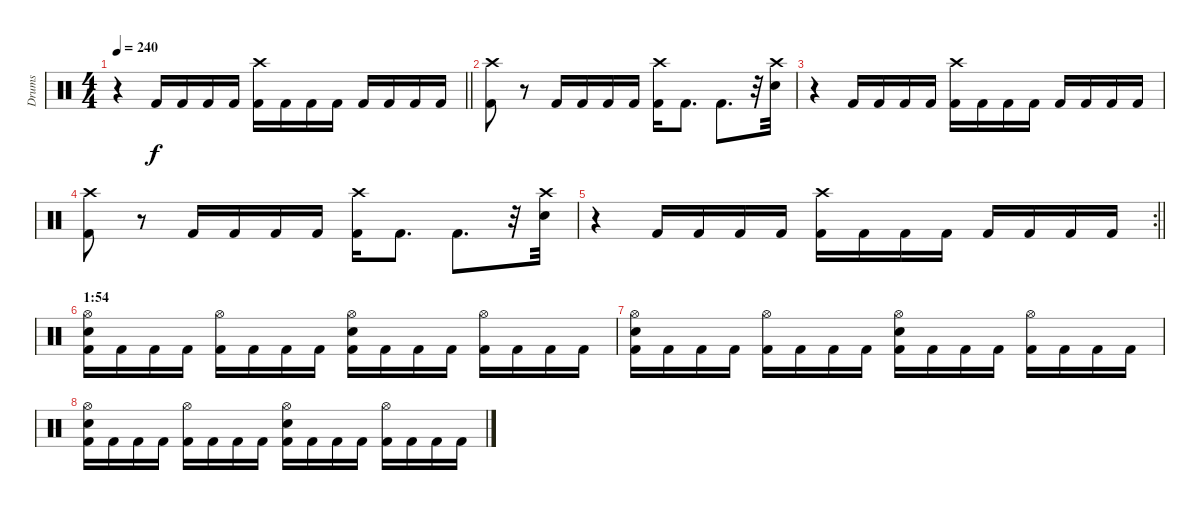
\track ("Drums" "Drums") {instrument percussion}
\staff {score}
\articulation defaults
\ts (4 4)
\tempo 240
\clef neutral
\barLineRight lightlight
\ks c
r.4{dy f} "Kick (hit) 2".16 "Kick (hit) 2".16 "Kick (hit) 2".16 "Kick (hit) 2".16 ("Crash high (hit)" "Kick (hit) 2").16 "Kick (hit) 2".16 "Kick (hit) 2".16 "Kick (hit) 2".16 "Kick (hit) 2".16 "Kick (hit) 2".16 "Kick (hit) 2".16 "Kick (hit) 2".16 |
("Crash high (hit)" "Kick (hit) 2").8 r.8 "Kick (hit) 2".16 "Kick (hit) 2".16 "Kick (hit) 2".16 "Kick (hit) 2".16 ("Crash high (hit)" "Kick (hit) 2").16 "Kick (hit) 2".8{d} "Kick (hit) 2".8{d} r.32 ("Crash high (hit)" "Electric Snare (hit)").32 |
r.4 "Kick (hit) 2".16 "Kick (hit) 2".16 "Kick (hit) 2".16 "Kick (hit) 2".16 ("Crash high (hit)" "Kick (hit) 2").16 "Kick (hit) 2".16 "Kick (hit) 2".16 "Kick (hit) 2".16 "Kick (hit) 2".16 "Kick (hit) 2".16 "Kick (hit) 2".16 "Kick (hit) 2".16 |
("Crash high (hit)" "Kick (hit) 2").8 r.8 "Kick (hit) 2".16 "Kick (hit) 2".16 "Kick (hit) 2".16 "Kick (hit) 2".16 ("Crash high (hit)" "Kick (hit) 2").16 "Kick (hit) 2".8{d} "Kick (hit) 2".8{d} r.32 ("Crash high (hit)" "Electric Snare (hit)").32 |
\rc 2
\barLineRight lightlight
r.4 "Kick (hit) 2".16 "Kick (hit) 2".16 "Kick (hit) 2".16 "Kick (hit) 2".16 ("Crash high (hit)" "Kick (hit) 2").16 "Kick (hit) 2".16 "Kick (hit) 2".16 "Kick (hit) 2".16 "Kick (hit) 2".16 "Kick (hit) 2".16 "Kick (hit) 2".16 "Kick (hit) 2".16 |
\section ("" "1:54")
("Hi-Hat (open)" "Electric Snare (hit)" "Kick (hit) 2").16 "Kick (hit) 2".16 "Kick (hit) 2".16 "Kick (hit) 2".16 ("Hi-Hat (open)" "Kick (hit) 2").16 "Kick (hit) 2".16 "Kick (hit) 2".16 "Kick (hit) 2".16 ("Hi-Hat (open)" "Electric Snare (hit)" "Kick (hit) 2").16 "Kick (hit) 2".16 "Kick (hit) 2".16 "Kick (hit) 2".16 ("Hi-Hat (open)" "Kick (hit) 2").16 "Kick (hit) 2".16 "Kick (hit) 2".16 "Kick (hit) 2".16 |
("Hi-Hat (open)" "Electric Snare (hit)" "Kick (hit) 2").16 "Kick (hit) 2".16 "Kick (hit) 2".16 "Kick (hit) 2".16 ("Hi-Hat (open)" "Kick (hit) 2").16 "Kick (hit) 2".16 "Kick (hit) 2".16 "Kick (hit) 2".16 ("Hi-Hat (open)" "Electric Snare (hit)" "Kick (hit) 2").16 "Kick (hit) 2".16 "Kick (hit) 2".16 "Kick (hit) 2".16 ("Hi-Hat (open)" "Kick (hit) 2").16 "Kick (hit) 2".16 "Kick (hit) 2".16 "Kick (hit) 2".16 |
("Hi-Hat (open)" "Electric Snare (hit)" "Kick (hit) 2").16 "Kick (hit) 2".16 "Kick (hit) 2".16 "Kick (hit) 2".16 ("Hi-Hat (open)" "Kick (hit) 2").16 "Kick (hit) 2".16 "Kick (hit) 2".16 "Kick (hit) 2".16 ("Hi-Hat (open)" "Electric Snare (hit)" "Kick (hit) 2").16 "Kick (hit) 2".16 "Kick (hit) 2".16 "Kick (hit) 2".16 ("Hi-Hat (open)" "Kick (hit) 2").16 "Kick (hit) 2".16 "Kick (hit) 2".16 "Kick (hit) 2".16
